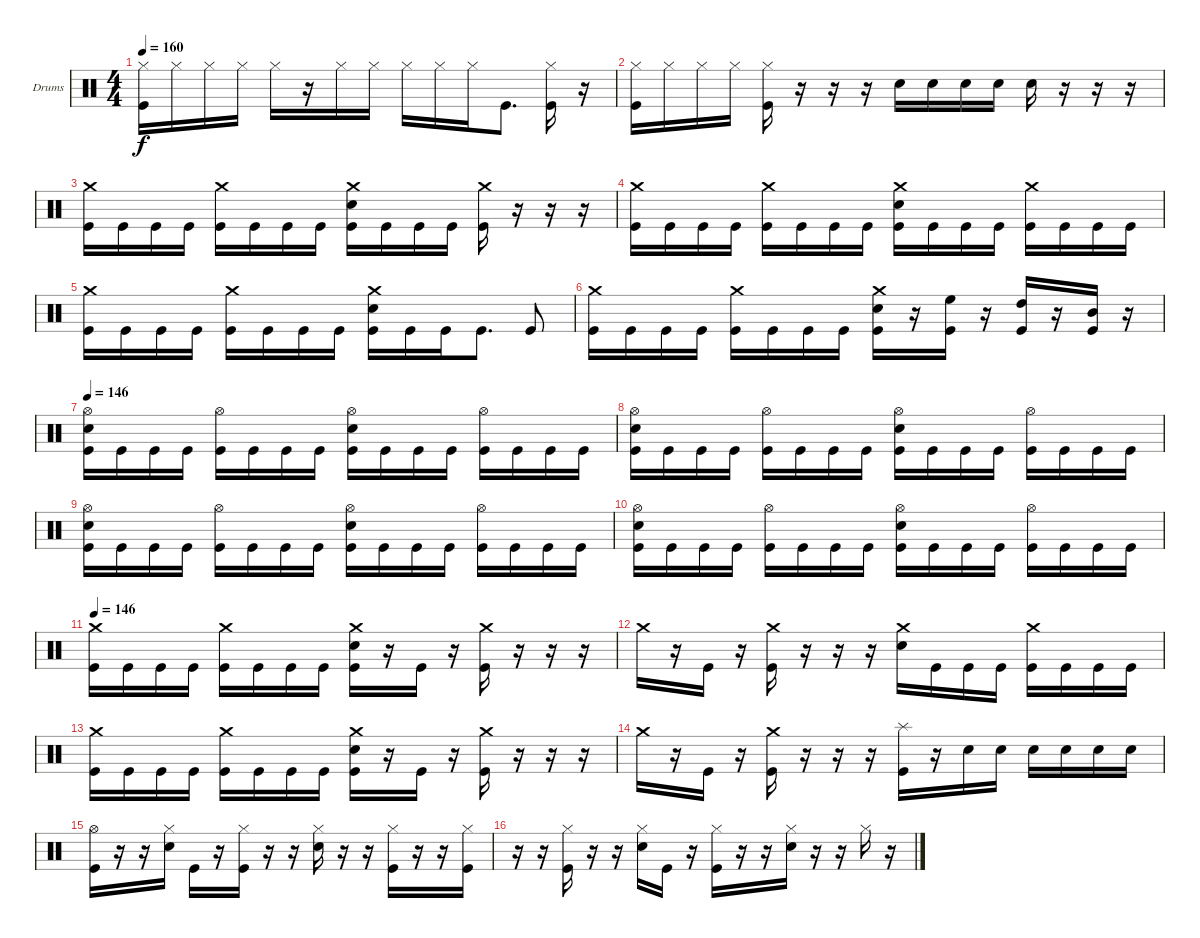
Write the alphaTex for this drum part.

\bracketExtendMode groupsimilarinstruments
\firstSystemTrackNameOrientation horizontal
\otherSystemsTrackNameOrientation horizontal
\track ("Drumkit" "Drums") {solo instrument percussion}
\staff {score}
\articulation defaults
\ts (4 4)
\tempo 160
\clef neutral
\ks c
("Hi-Hat (closed)" "Kick (hit)").16{dy f} "Hi-Hat (closed)".16 "Hi-Hat (closed)".16 "Hi-Hat (closed)".16 "Hi-Hat (closed)".16 r.16 "Hi-Hat (closed)".16 "Hi-Hat (closed)".16 "Hi-Hat (closed)".16 "Hi-Hat (closed)".16 "Hi-Hat (closed)".16 "Kick (hit)".8{d} ("Hi-Hat (closed)" "Kick (hit)").16 r.16 |
("Hi-Hat (closed)" "Kick (hit)").16 "Hi-Hat (closed)".16 "Hi-Hat (closed)".16 "Hi-Hat (closed)".16 ("Hi-Hat (closed)" "Kick (hit)").16 r.16 r.16 r.16 "Snare (hit) 2".16 "Snare (hit) 2".16 "Snare (hit) 2".16 "Snare (hit) 2".16 "Snare (hit) 2".16 r.16 r.16 r.16 |
("Crash medium (hit)" "Kick (hit)").16 "Kick (hit)".16 "Kick (hit)".16 "Kick (hit)".16 ("Crash medium (hit)" "Kick (hit)").16 "Kick (hit)".16 "Kick (hit)".16 "Kick (hit)".16 ("Crash medium (hit)" "Snare (hit) 2" "Kick (hit)").16 "Kick (hit)".16 "Kick (hit)".16 "Kick (hit)".16 ("Crash medium (hit)" "Kick (hit)").16 r.16 r.16 r.16 |
("Crash medium (hit)" "Kick (hit)").16 "Kick (hit)".16 "Kick (hit)".16 "Kick (hit)".16 ("Crash medium (hit)" "Kick (hit)").16 "Kick (hit)".16 "Kick (hit)".16 "Kick (hit)".16 ("Crash medium (hit)" "Snare (hit) 2" "Kick (hit)").16 "Kick (hit)".16 "Kick (hit)".16 "Kick (hit)".16 ("Crash medium (hit)" "Kick (hit)").16 "Kick (hit)".16 "Kick (hit)".16 "Kick (hit)".16 |
("Crash medium (hit)" "Kick (hit)").16 "Kick (hit)".16 "Kick (hit)".16 "Kick (hit)".16 ("Crash medium (hit)" "Kick (hit)").16 "Kick (hit)".16 "Kick (hit)".16 "Kick (hit)".16 ("Crash medium (hit)" "Snare (hit) 2" "Kick (hit)").16 "Kick (hit)".16 "Kick (hit)".16 "Kick (hit)".8{d} "Kick (hit)".8 |
("Crash medium (hit)" "Kick (hit)").16 "Kick (hit)".16 "Kick (hit)".16 "Kick (hit)".16 ("Crash medium (hit)" "Kick (hit)").16 "Kick (hit)".16 "Kick (hit)".16 "Kick (hit)".16 ("Crash medium (hit)" "Snare (hit) 2" "Kick (hit)").16 r.16 ("High Floor Tom (hit)" "Kick (hit)").16 r.16 ("High Tom (hit)" "Kick (hit)").16 r.16 ("Mid Tom (hit)" "Kick (hit)").16 r.16 |
\tempo 146
("Hi-Hat (open)" "Snare (hit) 2" "Kick (hit)").16 "Kick (hit)".16 "Kick (hit)".16 "Kick (hit)".16 ("Hi-Hat (open)" "Kick (hit)").16 "Kick (hit)".16 "Kick (hit)".16 "Kick (hit)".16 ("Hi-Hat (open)" "Snare (hit) 2" "Kick (hit)").16 "Kick (hit)".16 "Kick (hit)".16 "Kick (hit)".16 ("Hi-Hat (open)" "Kick (hit)").16 "Kick (hit)".16 "Kick (hit)".16 "Kick (hit)".16 |
("Hi-Hat (open)" "Snare (hit) 2" "Kick (hit)").16 "Kick (hit)".16 "Kick (hit)".16 "Kick (hit)".16 ("Hi-Hat (open)" "Kick (hit)").16 "Kick (hit)".16 "Kick (hit)".16 "Kick (hit)".16 ("Hi-Hat (open)" "Snare (hit) 2" "Kick (hit)").16 "Kick (hit)".16 "Kick (hit)".16 "Kick (hit)".16 ("Hi-Hat (open)" "Kick (hit)").16 "Kick (hit)".16 "Kick (hit)".16 "Kick (hit)".16 |
("Hi-Hat (open)" "Snare (hit) 2" "Kick (hit)").16 "Kick (hit)".16 "Kick (hit)".16 "Kick (hit)".16 ("Hi-Hat (open)" "Kick (hit)").16 "Kick (hit)".16 "Kick (hit)".16 "Kick (hit)".16 ("Hi-Hat (open)" "Snare (hit) 2" "Kick (hit)").16 "Kick (hit)".16 "Kick (hit)".16 "Kick (hit)".16 ("Hi-Hat (open)" "Kick (hit)").16 "Kick (hit)".16 "Kick (hit)".16 "Kick (hit)".16 |
("Hi-Hat (open)" "Snare (hit) 2" "Kick (hit)").16 "Kick (hit)".16 "Kick (hit)".16 "Kick (hit)".16 ("Hi-Hat (open)" "Kick (hit)").16 "Kick (hit)".16 "Kick (hit)".16 "Kick (hit)".16 ("Hi-Hat (open)" "Snare (hit) 2" "Kick (hit)").16 "Kick (hit)".16 "Kick (hit)".16 "Kick (hit)".16 ("Hi-Hat (open)" "Kick (hit)").16 "Kick (hit)".16 "Kick (hit)".16 "Kick (hit)".16 |
\tempo 146
("Crash medium (hit)" "Kick (hit)").16 "Kick (hit)".16 "Kick (hit)".16 "Kick (hit)".16 ("Crash medium (hit)" "Kick (hit)").16 "Kick (hit)".16 "Kick (hit)".16 "Kick (hit)".16 ("Crash medium (hit)" "Snare (hit) 2" "Kick (hit)").16 r.16 "Kick (hit)".16 r.16 ("Crash medium (hit)" "Kick (hit)").16 r.16 r.16 r.16 |
"Crash medium (hit)".16 r.16 "Kick (hit)".16 r.16 ("Crash medium (hit)" "Kick (hit)").16 r.16 r.16 r.16 ("Crash medium (hit)" "Snare (hit) 2").16 "Kick (hit)".16 "Kick (hit)".16 "Kick (hit)".16 ("Crash medium (hit)" "Kick (hit)").16 "Kick (hit)".16 "Kick (hit)".16 "Kick (hit)".16 |
("Crash medium (hit)" "Kick (hit)").16 "Kick (hit)".16 "Kick (hit)".16 "Kick (hit)".16 ("Crash medium (hit)" "Kick (hit)").16 "Kick (hit)".16 "Kick (hit)".16 "Kick (hit)".16 ("Crash medium (hit)" "Snare (hit) 2" "Kick (hit)").16 r.16 "Kick (hit)".16 r.16 ("Crash medium (hit)" "Kick (hit)").16 r.16 r.16 r.16 |
"Crash medium (hit)".16 r.16 "Kick (hit)".16 r.16 ("Crash medium (hit)" "Kick (hit)").16 r.16 r.16 r.16 ("Splash (hit)" "Kick (hit)").16 r.16 "Snare (hit) 2".16 "Snare (hit) 2".16 "Snare (hit) 2".16 "Snare (hit) 2".16 "Snare (hit) 2".16 "Snare (hit) 2".16 |
("Hi-Hat (open)" "Kick (hit)").16 r.16 r.16 ("Hi-Hat (closed)" "Snare (hit) 2").16 "Kick (hit)".16 r.16 ("Hi-Hat (closed)" "Kick (hit)").16 r.16 r.16 ("Hi-Hat (closed)" "Snare (hit) 2").16 r.16 r.16 ("Hi-Hat (closed)" "Kick (hit)").16 r.16 r.16 ("Hi-Hat (closed)" "Kick (hit)").16 |
r.16 r.16 ("Hi-Hat (closed)" "Kick (hit)").16 r.16 r.16 ("Hi-Hat (closed)" "Snare (hit) 2").16 "Kick (hit)".16 r.16 ("Hi-Hat (closed)" "Kick (hit)").16 r.16 r.16 ("Hi-Hat (closed)" "Snare (hit) 2").16 r.16 r.16 "Hi-Hat (closed)".16 r.16
